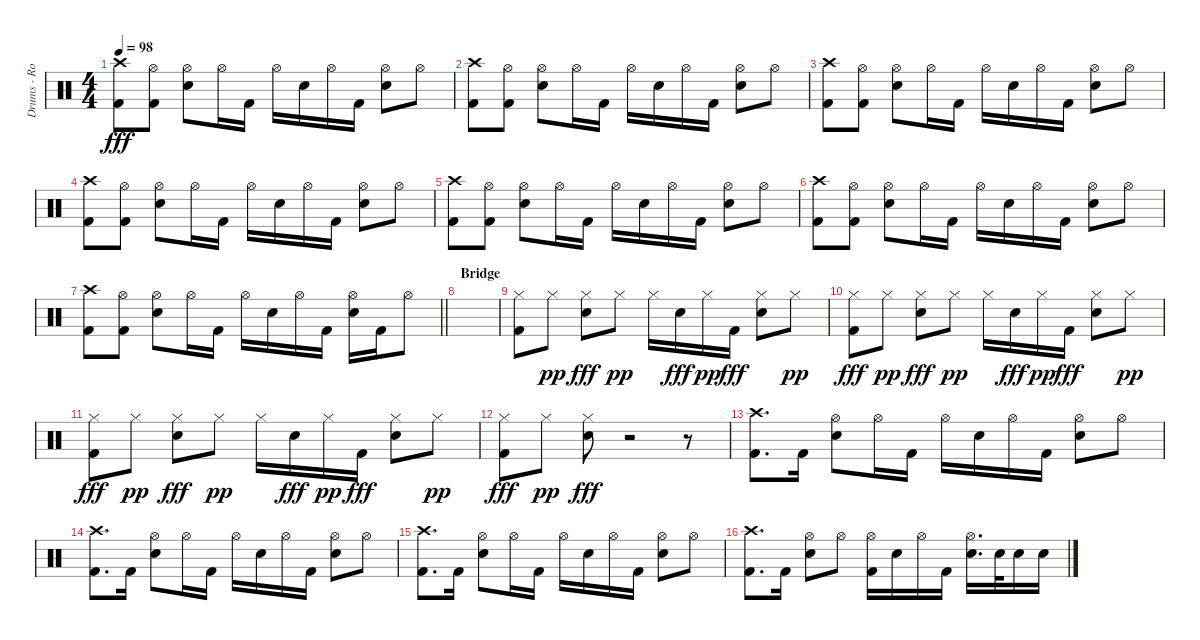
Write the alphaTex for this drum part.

\track ("Drums - Rob Bourdon" "Drums - Ro") {instrument percussion}
\staff {score}
\articulation defaults
\ts (4 4)
\tempo 98
\clef neutral
\ks c
("Crash high (hit)" "Kick (hit) 2").8{dy fff} ("Hi-Hat (open)" "Kick (hit) 2").8 ("Hi-Hat (open)" "Snare (hit) 2").8 "Hi-Hat (open)".16 "Kick (hit) 2".16 "Hi-Hat (open)".16 "Snare (hit) 2".16 "Hi-Hat (open)".16 "Kick (hit) 2".16 ("Hi-Hat (open)" "Snare (hit) 2").8 "Hi-Hat (open)".8 |
("Crash high (hit)" "Kick (hit) 2").8 ("Hi-Hat (open)" "Kick (hit) 2").8 ("Hi-Hat (open)" "Snare (hit) 2").8 "Hi-Hat (open)".16 "Kick (hit) 2".16 "Hi-Hat (open)".16 "Snare (hit) 2".16 "Hi-Hat (open)".16 "Kick (hit) 2".16 ("Hi-Hat (open)" "Snare (hit) 2").8 "Hi-Hat (open)".8 |
("Crash high (hit)" "Kick (hit) 2").8 ("Hi-Hat (open)" "Kick (hit) 2").8 ("Hi-Hat (open)" "Snare (hit) 2").8 "Hi-Hat (open)".16 "Kick (hit) 2".16 "Hi-Hat (open)".16 "Snare (hit) 2".16 "Hi-Hat (open)".16 "Kick (hit) 2".16 ("Hi-Hat (open)" "Snare (hit) 2").8 "Hi-Hat (open)".8 |
("Crash high (hit)" "Kick (hit) 2").8 ("Hi-Hat (open)" "Kick (hit) 2").8 ("Hi-Hat (open)" "Snare (hit) 2").8 "Hi-Hat (open)".16 "Kick (hit) 2".16 "Hi-Hat (open)".16 "Snare (hit) 2".16 "Hi-Hat (open)".16 "Kick (hit) 2".16 ("Hi-Hat (open)" "Snare (hit) 2").8 "Hi-Hat (open)".8 |
("Crash high (hit)" "Kick (hit) 2").8 ("Hi-Hat (open)" "Kick (hit) 2").8 ("Hi-Hat (open)" "Snare (hit) 2").8 "Hi-Hat (open)".16 "Kick (hit) 2".16 "Hi-Hat (open)".16 "Snare (hit) 2".16 "Hi-Hat (open)".16 "Kick (hit) 2".16 ("Hi-Hat (open)" "Snare (hit) 2").8 "Hi-Hat (open)".8 |
("Crash high (hit)" "Kick (hit) 2").8 ("Hi-Hat (open)" "Kick (hit) 2").8 ("Hi-Hat (open)" "Snare (hit) 2").8 "Hi-Hat (open)".16 "Kick (hit) 2".16 "Hi-Hat (open)".16 "Snare (hit) 2".16 "Hi-Hat (open)".16 "Kick (hit) 2".16 ("Hi-Hat (open)" "Snare (hit) 2").8 "Hi-Hat (open)".8 |
\barLineRight lightlight
("Crash high (hit)" "Kick (hit) 2").8 ("Hi-Hat (open)" "Kick (hit) 2").8 ("Hi-Hat (open)" "Snare (hit) 2").8 "Hi-Hat (open)".16 "Kick (hit) 2".16 "Hi-Hat (open)".16 "Snare (hit) 2".16 "Hi-Hat (open)".16 "Kick (hit) 2".16 ("Hi-Hat (open)" "Snare (hit) 2").16 "Kick (hit) 2".16 "Hi-Hat (open)".8 |
\section ("" "Bridge")
|
("Hi-Hat (closed)" "Kick (hit) 2").8 "Hi-Hat (closed)".8{dy pp} ("Hi-Hat (closed)" "Snare (hit) 2").8{dy fff} "Hi-Hat (closed)".8{dy pp} "Hi-Hat (closed)".16 "Snare (hit) 2".16{dy fff} "Hi-Hat (closed)".16{dy pp} "Kick (hit) 2".16{dy fff} ("Hi-Hat (closed)" "Snare (hit) 2").8 "Hi-Hat (closed)".8{dy pp} |
("Hi-Hat (closed)" "Kick (hit) 2").8{dy fff} "Hi-Hat (closed)".8{dy pp} ("Hi-Hat (closed)" "Snare (hit) 2").8{dy fff} "Hi-Hat (closed)".8{dy pp} "Hi-Hat (closed)".16 "Snare (hit) 2".16{dy fff} "Hi-Hat (closed)".16{dy pp} "Kick (hit) 2".16{dy fff} ("Hi-Hat (closed)" "Snare (hit) 2").8 "Hi-Hat (closed)".8{dy pp} |
("Hi-Hat (closed)" "Kick (hit) 2").8{dy fff} "Hi-Hat (closed)".8{dy pp} ("Hi-Hat (closed)" "Snare (hit) 2").8{dy fff} "Hi-Hat (closed)".8{dy pp} "Hi-Hat (closed)".16 "Snare (hit) 2".16{dy fff} "Hi-Hat (closed)".16{dy pp} "Kick (hit) 2".16{dy fff} ("Hi-Hat (closed)" "Snare (hit) 2").8 "Hi-Hat (closed)".8{dy pp} |
("Hi-Hat (closed)" "Kick (hit) 2").8{dy fff} "Hi-Hat (closed)".8{dy pp} ("Hi-Hat (closed)" "Snare (hit) 2").8{dy fff} r.2 r.8 |
("Crash high (hit)" "Kick (hit) 2").8{d} "Kick (hit) 2".16 ("Hi-Hat (open)" "Snare (hit) 2").8 "Hi-Hat (open)".16 "Kick (hit) 2".16 "Hi-Hat (open)".16 "Snare (hit) 2".16 "Hi-Hat (open)".16 "Kick (hit) 2".16 ("Hi-Hat (open)" "Snare (hit) 2").8 "Hi-Hat (open)".8 |
("Crash high (hit)" "Kick (hit) 2").8{d} "Kick (hit) 2".16 ("Hi-Hat (open)" "Snare (hit) 2").8 "Hi-Hat (open)".16 "Kick (hit) 2".16 "Hi-Hat (open)".16 "Snare (hit) 2".16 "Hi-Hat (open)".16 "Kick (hit) 2".16 ("Hi-Hat (open)" "Snare (hit) 2").8 "Hi-Hat (open)".8 |
("Crash high (hit)" "Kick (hit) 2").8{d} "Kick (hit) 2".16 ("Hi-Hat (open)" "Snare (hit) 2").8 "Hi-Hat (open)".16 "Kick (hit) 2".16 "Hi-Hat (open)".16 "Snare (hit) 2".16 "Hi-Hat (open)".16 "Kick (hit) 2".16 ("Hi-Hat (open)" "Snare (hit) 2").8 "Hi-Hat (open)".8 |
("Crash high (hit)" "Kick (hit) 2").8{d} "Kick (hit) 2".16 ("Hi-Hat (open)" "Snare (hit) 2").8 "Hi-Hat (open)".8 ("Hi-Hat (open)" "Kick (hit) 2").16 "Snare (hit) 2".16 "Hi-Hat (open)".16 "Kick (hit) 2".16 ("Hi-Hat (open)" "Snare (hit) 2").16{d} "Snare (hit) 2".32 "Snare (hit) 2".16 "Snare (hit) 2".16
